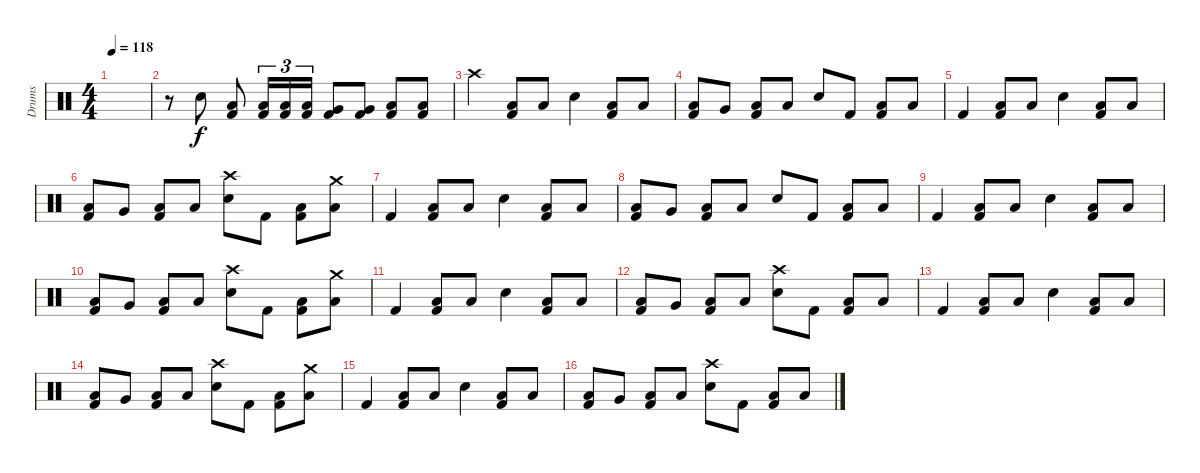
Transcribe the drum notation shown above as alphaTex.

\track ("Drums" "Drums") {instrument percussion}
\staff {score}
\articulation defaults
\ts (4 4)
\tempo 118
\clef neutral
\ks c
|
r.8 "Electric Snare (hit)".8 ("Kick (hit) 2" "Low Floor Tom (hit)").8 ("Kick (hit) 2" "Low Tom (hit)").16{tu (3 2)} ("Kick (hit) 2" "Low Tom (hit)").16{tu (3 2)} ("Kick (hit) 2" "Low Tom (hit)").16{tu (3 2)} ("Kick (hit) 2" "Very Low Tom (hit)").8 ("Kick (hit) 2" "Very Low Tom (hit)").8 ("Kick (hit) 2" "Low Floor Tom (hit)").8 ("Kick (hit) 2" "Low Floor Tom (hit)").8 |
"Crash high (hit)".4 ("Kick (hit) 2" "Low Floor Tom (hit)").8 "Low Floor Tom (hit)".8 "Snare (hit) 2".4 ("Kick (hit) 2" "Low Floor Tom (hit)").8 "Low Floor Tom (hit)".8 |
("Kick (hit) 2" "Low Tom (hit)").8 "Very Low Tom (hit)".8 ("Kick (hit) 2" "Low Floor Tom (hit)").8 "Low Floor Tom (hit)".8 "Snare (hit) 2".8 "Kick (hit) 2".8 ("Kick (hit) 2" "Low Floor Tom (hit)").8 "Low Floor Tom (hit)".8 |
"Kick (hit) 2".4 ("Kick (hit) 2" "Low Floor Tom (hit)").8 "Low Floor Tom (hit)".8 "Snare (hit) 2".4 ("Kick (hit) 2" "Low Floor Tom (hit)").8 "Low Floor Tom (hit)".8 |
("Kick (hit) 2" "Low Tom (hit)").8 "Very Low Tom (hit)".8 ("Kick (hit) 2" "Low Floor Tom (hit)").8 "Low Floor Tom (hit)".8 ("Snare (hit) 2" "Crash high (hit)").8 "Kick (hit) 2".8 ("Kick (hit) 2" "Low Floor Tom (hit)").8 ("Low Floor Tom (hit)" "Crash medium (hit)").8 |
"Kick (hit) 2".4 ("Kick (hit) 2" "Low Floor Tom (hit)").8 "Low Floor Tom (hit)".8 "Snare (hit) 2".4 ("Kick (hit) 2" "Low Floor Tom (hit)").8 "Low Floor Tom (hit)".8 |
("Kick (hit) 2" "Low Tom (hit)").8 "Very Low Tom (hit)".8 ("Kick (hit) 2" "Low Floor Tom (hit)").8 "Low Floor Tom (hit)".8 "Snare (hit) 2".8 "Kick (hit) 2".8 ("Kick (hit) 2" "Low Floor Tom (hit)").8 "Low Floor Tom (hit)".8 |
"Kick (hit) 2".4 ("Kick (hit) 2" "Low Floor Tom (hit)").8 "Low Floor Tom (hit)".8 "Snare (hit) 2".4 ("Kick (hit) 2" "Low Floor Tom (hit)").8 "Low Floor Tom (hit)".8 |
("Kick (hit) 2" "Low Tom (hit)").8 "Very Low Tom (hit)".8 ("Kick (hit) 2" "Low Floor Tom (hit)").8 "Low Floor Tom (hit)".8 ("Snare (hit) 2" "Crash high (hit)").8 "Kick (hit) 2".8 ("Kick (hit) 2" "Low Floor Tom (hit)").8 ("Low Floor Tom (hit)" "Crash medium (hit)").8 |
"Kick (hit) 2".4 ("Kick (hit) 2" "Low Floor Tom (hit)").8 "Low Floor Tom (hit)".8 "Snare (hit) 2".4 ("Kick (hit) 2" "Low Floor Tom (hit)").8 "Low Floor Tom (hit)".8 |
("Kick (hit) 2" "Low Tom (hit)").8 "Very Low Tom (hit)".8 ("Kick (hit) 2" "Low Floor Tom (hit)").8 "Low Floor Tom (hit)".8 ("Snare (hit) 2" "Crash high (hit)").8 "Kick (hit) 2".8 ("Kick (hit) 2" "Low Floor Tom (hit)").8 "Low Floor Tom (hit)".8 |
"Kick (hit) 2".4 ("Kick (hit) 2" "Low Floor Tom (hit)").8 "Low Floor Tom (hit)".8 "Snare (hit) 2".4 ("Kick (hit) 2" "Low Floor Tom (hit)").8 "Low Floor Tom (hit)".8 |
("Kick (hit) 2" "Low Tom (hit)").8 "Very Low Tom (hit)".8 ("Kick (hit) 2" "Low Floor Tom (hit)").8 "Low Floor Tom (hit)".8 ("Snare (hit) 2" "Crash high (hit)").8 "Kick (hit) 2".8 ("Kick (hit) 2" "Low Floor Tom (hit)").8 ("Low Floor Tom (hit)" "Crash medium (hit)").8 |
"Kick (hit) 2".4 ("Kick (hit) 2" "Low Floor Tom (hit)").8 "Low Floor Tom (hit)".8 "Snare (hit) 2".4 ("Kick (hit) 2" "Low Floor Tom (hit)").8 "Low Floor Tom (hit)".8 |
("Kick (hit) 2" "Low Tom (hit)").8 "Very Low Tom (hit)".8 ("Kick (hit) 2" "Low Floor Tom (hit)").8 "Low Floor Tom (hit)".8 ("Snare (hit) 2" "Crash high (hit)").8 "Kick (hit) 2".8 ("Kick (hit) 2" "Low Floor Tom (hit)").8 "Low Floor Tom (hit)".8
